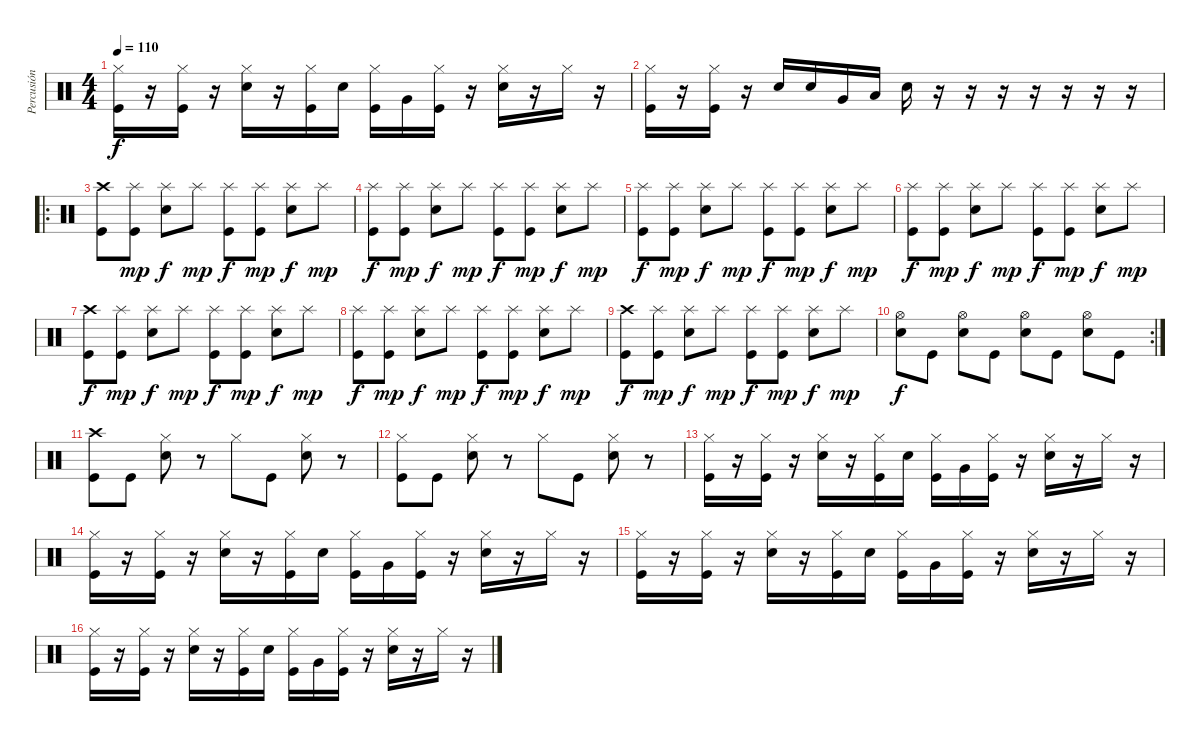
\track ("Percusión" "Percusión") {instrument percussion}
\staff {score}
\articulation defaults
\ts (4 4)
\tempo 110
\clef neutral
\ks c
("Hi-Hat (closed)" "Kick (hit)").16{dy f} r.16 ("Hi-Hat (closed)" "Kick (hit)").16 r.16 ("Hi-Hat (closed)" "Electric Snare (hit)").16 r.16 ("Hi-Hat (closed)" "Kick (hit)").16 "Electric Snare (hit)".16 ("Hi-Hat (closed)" "Kick (hit)").16 "Very Low Tom (hit)".16 ("Hi-Hat (closed)" "Kick (hit)").16 r.16 ("Hi-Hat (closed)" "Electric Snare (hit)").16 r.16 "Hi-Hat (closed)".16 r.16 |
("Hi-Hat (closed)" "Kick (hit)").16 r.16 ("Hi-Hat (closed)" "Kick (hit)").16 r.16 "Electric Snare (hit)".16 "Electric Snare (hit)".16 "Very Low Tom (hit)".16 "Low Floor Tom (hit)".16 "Electric Snare (hit)".16 r.16 r.16 r.16 r.16 r.16 r.16 r.16 |
\ro
("Crash high (hit)" "Kick (hit)").8 ("Splash (hit)" "Kick (hit)").8{dy mp} ("Splash (hit)" "Electric Snare (hit)").8{dy f} "Splash (hit)".8{dy mp} ("Splash (hit)" "Kick (hit)").8{dy f} ("Splash (hit)" "Kick (hit)").8{dy mp} ("Splash (hit)" "Electric Snare (hit)").8{dy f} "Splash (hit)".8{dy mp} |
("Splash (hit)" "Kick (hit)").8{dy f} ("Splash (hit)" "Kick (hit)").8{dy mp} ("Splash (hit)" "Electric Snare (hit)").8{dy f} "Splash (hit)".8{dy mp} ("Splash (hit)" "Kick (hit)").8{dy f} ("Splash (hit)" "Kick (hit)").8{dy mp} ("Splash (hit)" "Electric Snare (hit)").8{dy f} "Splash (hit)".8{dy mp} |
("Splash (hit)" "Kick (hit)").8{dy f} ("Splash (hit)" "Kick (hit)").8{dy mp} ("Splash (hit)" "Electric Snare (hit)").8{dy f} "Splash (hit)".8{dy mp} ("Splash (hit)" "Kick (hit)").8{dy f} ("Splash (hit)" "Kick (hit)").8{dy mp} ("Splash (hit)" "Electric Snare (hit)").8{dy f} "Splash (hit)".8{dy mp} |
("Splash (hit)" "Kick (hit)").8{dy f} ("Splash (hit)" "Kick (hit)").8{dy mp} ("Splash (hit)" "Electric Snare (hit)").8{dy f} "Splash (hit)".8{dy mp} ("Splash (hit)" "Kick (hit)").8{dy f} ("Splash (hit)" "Kick (hit)").8{dy mp} ("Splash (hit)" "Electric Snare (hit)").8{dy f} "Splash (hit)".8{dy mp} |
("Crash high (hit)" "Kick (hit)").8{dy f} ("Splash (hit)" "Kick (hit)").8{dy mp} ("Splash (hit)" "Electric Snare (hit)").8{dy f} "Splash (hit)".8{dy mp} ("Splash (hit)" "Kick (hit)").8{dy f} ("Splash (hit)" "Kick (hit)").8{dy mp} ("Splash (hit)" "Electric Snare (hit)").8{dy f} "Splash (hit)".8{dy mp} |
("Splash (hit)" "Kick (hit)").8{dy f} ("Splash (hit)" "Kick (hit)").8{dy mp} ("Splash (hit)" "Electric Snare (hit)").8{dy f} "Splash (hit)".8{dy mp} ("Splash (hit)" "Kick (hit)").8{dy f} ("Splash (hit)" "Kick (hit)").8{dy mp} ("Splash (hit)" "Electric Snare (hit)").8{dy f} "Splash (hit)".8{dy mp} |
("Crash high (hit)" "Kick (hit)").8{dy f} ("Splash (hit)" "Kick (hit)").8{dy mp} ("Splash (hit)" "Electric Snare (hit)").8{dy f} "Splash (hit)".8{dy mp} ("Splash (hit)" "Kick (hit)").8{dy f} ("Splash (hit)" "Kick (hit)").8{dy mp} ("Splash (hit)" "Electric Snare (hit)").8{dy f} "Splash (hit)".8{dy mp} |
\rc 2
("Hi-Hat (open)" "Electric Snare (hit)").8{dy f} "Kick (hit)".8 ("Hi-Hat (open)" "Electric Snare (hit)").8 "Kick (hit)".8 ("Hi-Hat (open)" "Electric Snare (hit)").8 "Kick (hit)".8 ("Hi-Hat (open)" "Electric Snare (hit)").8 "Kick (hit)".8 |
("Crash high (hit)" "Kick (hit)").8 "Kick (hit)".8 ("Hi-Hat (closed)" "Electric Snare (hit)").8 r.8 "Hi-Hat (closed)".8 "Kick (hit)".8 ("Hi-Hat (closed)" "Electric Snare (hit)").8 r.8 |
("Hi-Hat (closed)" "Kick (hit)").8 "Kick (hit)".8 ("Hi-Hat (closed)" "Electric Snare (hit)").8 r.8 "Hi-Hat (closed)".8 "Kick (hit)".8 ("Hi-Hat (closed)" "Electric Snare (hit)").8 r.8 |
("Hi-Hat (closed)" "Kick (hit)").16 r.16 ("Hi-Hat (closed)" "Kick (hit)").16 r.16 ("Hi-Hat (closed)" "Electric Snare (hit)").16 r.16 ("Hi-Hat (closed)" "Kick (hit)").16 "Electric Snare (hit)".16 ("Hi-Hat (closed)" "Kick (hit)").16 "Very Low Tom (hit)".16 ("Hi-Hat (closed)" "Kick (hit)").16 r.16 ("Hi-Hat (closed)" "Electric Snare (hit)").16 r.16 "Hi-Hat (closed)".16 r.16 |
("Hi-Hat (closed)" "Kick (hit)").16 r.16 ("Hi-Hat (closed)" "Kick (hit)").16 r.16 ("Hi-Hat (closed)" "Electric Snare (hit)").16 r.16 ("Hi-Hat (closed)" "Kick (hit)").16 "Electric Snare (hit)".16 ("Hi-Hat (closed)" "Kick (hit)").16 "Very Low Tom (hit)".16 ("Hi-Hat (closed)" "Kick (hit)").16 r.16 ("Hi-Hat (closed)" "Electric Snare (hit)").16 r.16 "Hi-Hat (closed)".16 r.16 |
("Hi-Hat (closed)" "Kick (hit)").16 r.16 ("Hi-Hat (closed)" "Kick (hit)").16 r.16 ("Hi-Hat (closed)" "Electric Snare (hit)").16 r.16 ("Hi-Hat (closed)" "Kick (hit)").16 "Electric Snare (hit)".16 ("Hi-Hat (closed)" "Kick (hit)").16 "Very Low Tom (hit)".16 ("Hi-Hat (closed)" "Kick (hit)").16 r.16 ("Hi-Hat (closed)" "Electric Snare (hit)").16 r.16 "Hi-Hat (closed)".16 r.16 |
("Hi-Hat (closed)" "Kick (hit)").16 r.16 ("Hi-Hat (closed)" "Kick (hit)").16 r.16 ("Hi-Hat (closed)" "Electric Snare (hit)").16 r.16 ("Hi-Hat (closed)" "Kick (hit)").16 "Electric Snare (hit)".16 ("Hi-Hat (closed)" "Kick (hit)").16 "Very Low Tom (hit)".16 ("Hi-Hat (closed)" "Kick (hit)").16 r.16 ("Hi-Hat (closed)" "Electric Snare (hit)").16 r.16 "Hi-Hat (closed)".16 r.16
